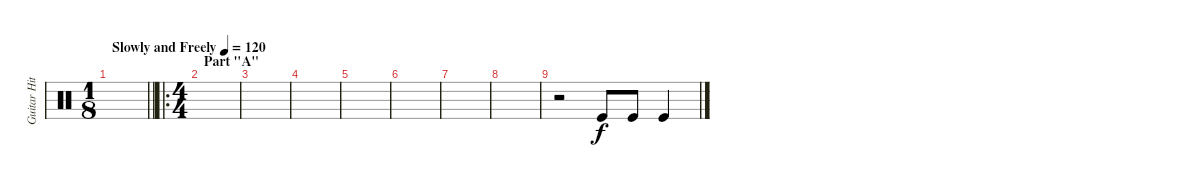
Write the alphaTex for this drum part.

\track ("Guitar Hit" "Guitar Hit") {instrument percussion}
\staff {score}
\articulation defaults
\ts (1 8)
\tempo (120 "Slowly and Freely")
\clef neutral
\barLineRight lightlight
\ks c
|
\ro
\ts (4 4)
\section ("" "Part \"A\"")
|
|
|
|
|
|
|
r.2 "Kick (hit)".8 "Kick (hit)".8 "Kick (hit)".4
